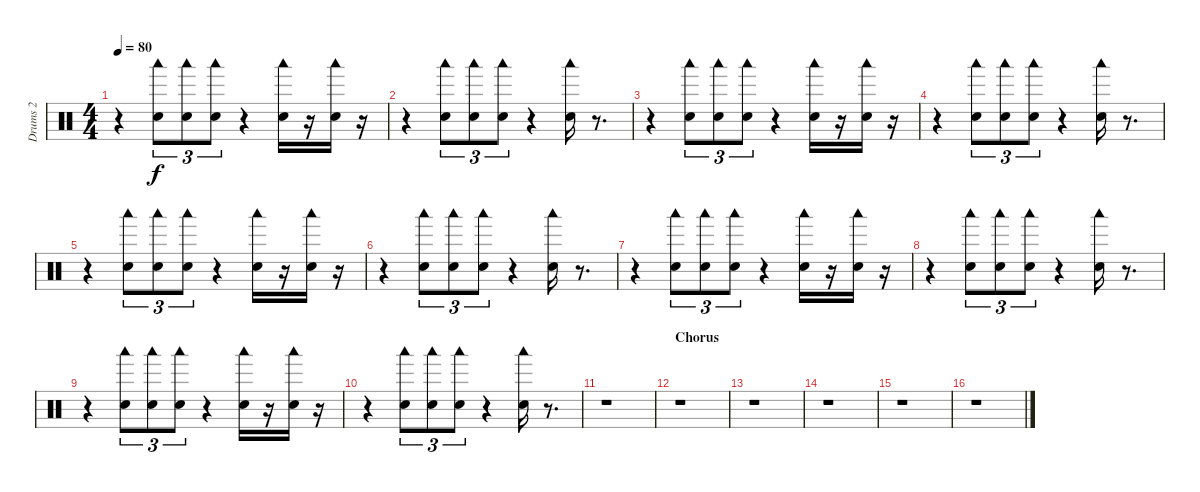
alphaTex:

\track ("Drums 2" "Drums 2") {instrument percussion}
\staff {score}
\articulation defaults
\ts (4 4)
\tempo 80
\clef neutral
\ks c
r.4{dy f} ("Woodblock low (hit)" "Electric Snare (hit)").8{tu (3 2)} ("Woodblock low (hit)" "Electric Snare (hit)").8{tu (3 2)} ("Woodblock low (hit)" "Electric Snare (hit)").8{tu (3 2)} r.4 ("Woodblock low (hit)" "Electric Snare (hit)").16 r.16 ("Woodblock low (hit)" "Electric Snare (hit)").16 r.16 |
r.4 ("Woodblock low (hit)" "Electric Snare (hit)").8{tu (3 2)} ("Woodblock low (hit)" "Electric Snare (hit)").8{tu (3 2)} ("Woodblock low (hit)" "Electric Snare (hit)").8{tu (3 2)} r.4 ("Woodblock low (hit)" "Electric Snare (hit)").16 r.8{d} |
r.4 ("Woodblock low (hit)" "Electric Snare (hit)").8{tu (3 2)} ("Woodblock low (hit)" "Electric Snare (hit)").8{tu (3 2)} ("Woodblock low (hit)" "Electric Snare (hit)").8{tu (3 2)} r.4 ("Woodblock low (hit)" "Electric Snare (hit)").16 r.16 ("Woodblock low (hit)" "Electric Snare (hit)").16 r.16 |
r.4 ("Woodblock low (hit)" "Electric Snare (hit)").8{tu (3 2)} ("Woodblock low (hit)" "Electric Snare (hit)").8{tu (3 2)} ("Woodblock low (hit)" "Electric Snare (hit)").8{tu (3 2)} r.4 ("Woodblock low (hit)" "Electric Snare (hit)").16 r.8{d} |
r.4 ("Woodblock low (hit)" "Electric Snare (hit)").8{tu (3 2)} ("Woodblock low (hit)" "Electric Snare (hit)").8{tu (3 2)} ("Woodblock low (hit)" "Electric Snare (hit)").8{tu (3 2)} r.4 ("Woodblock low (hit)" "Electric Snare (hit)").16 r.16 ("Woodblock low (hit)" "Electric Snare (hit)").16 r.16 |
r.4 ("Woodblock low (hit)" "Electric Snare (hit)").8{tu (3 2)} ("Woodblock low (hit)" "Electric Snare (hit)").8{tu (3 2)} ("Woodblock low (hit)" "Electric Snare (hit)").8{tu (3 2)} r.4 ("Woodblock low (hit)" "Electric Snare (hit)").16 r.8{d} |
r.4 ("Woodblock low (hit)" "Electric Snare (hit)").8{tu (3 2)} ("Woodblock low (hit)" "Electric Snare (hit)").8{tu (3 2)} ("Woodblock low (hit)" "Electric Snare (hit)").8{tu (3 2)} r.4 ("Woodblock low (hit)" "Electric Snare (hit)").16 r.16 ("Woodblock low (hit)" "Electric Snare (hit)").16 r.16 |
r.4 ("Woodblock low (hit)" "Electric Snare (hit)").8{tu (3 2)} ("Woodblock low (hit)" "Electric Snare (hit)").8{tu (3 2)} ("Woodblock low (hit)" "Electric Snare (hit)").8{tu (3 2)} r.4 ("Woodblock low (hit)" "Electric Snare (hit)").16 r.8{d} |
r.4 ("Woodblock low (hit)" "Electric Snare (hit)").8{tu (3 2)} ("Woodblock low (hit)" "Electric Snare (hit)").8{tu (3 2)} ("Woodblock low (hit)" "Electric Snare (hit)").8{tu (3 2)} r.4 ("Woodblock low (hit)" "Electric Snare (hit)").16 r.16 ("Woodblock low (hit)" "Electric Snare (hit)").16 r.16 |
r.4 ("Woodblock low (hit)" "Electric Snare (hit)").8{tu (3 2)} ("Woodblock low (hit)" "Electric Snare (hit)").8{tu (3 2)} ("Woodblock low (hit)" "Electric Snare (hit)").8{tu (3 2)} r.4 ("Woodblock low (hit)" "Electric Snare (hit)").16 r.8{d} |
r.1 |
\section ("" "Chorus")
r.1 |
r.1 |
r.1 |
r.1 |
r.1
